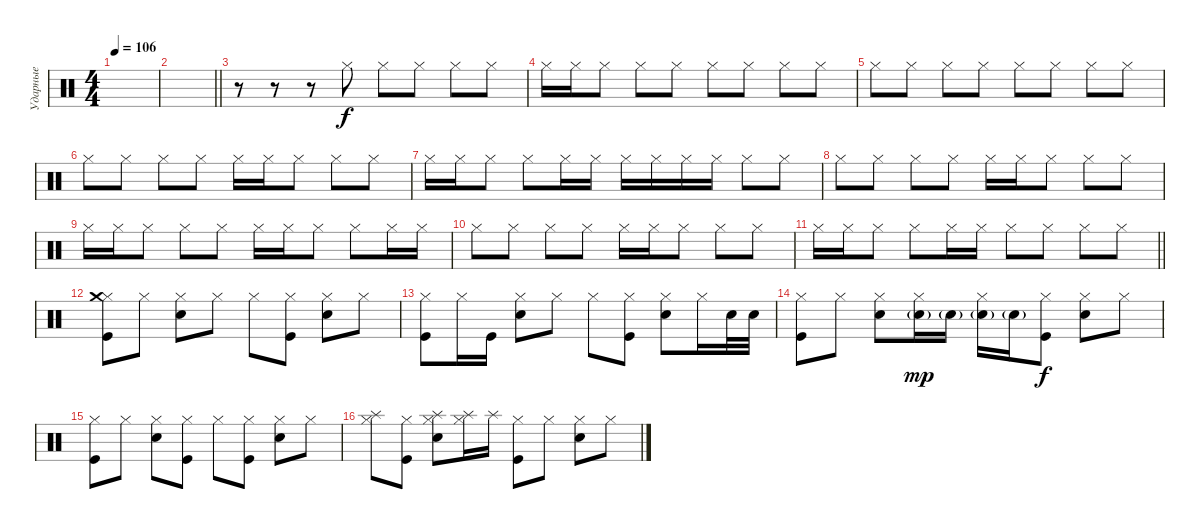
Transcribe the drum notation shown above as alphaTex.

\track ("Ударные" "Ударные") {instrument percussion}
\staff {score}
\articulation defaults
\ts (4 4)
\tempo 106
\clef neutral
\ks c
|
\barLineRight lightlight
|
r.8 r.8 r.8 "Hi-Hat (closed)".8 "Hi-Hat (closed)".8 "Hi-Hat (closed)".8 "Hi-Hat (closed)".8 "Hi-Hat (closed)".8 |
"Hi-Hat (closed)".16 "Hi-Hat (closed)".16 "Hi-Hat (closed)".8 "Hi-Hat (closed)".8 "Hi-Hat (closed)".8 "Hi-Hat (closed)".8 "Hi-Hat (closed)".8 "Hi-Hat (closed)".8 "Hi-Hat (closed)".8 |
"Hi-Hat (closed)".8 "Hi-Hat (closed)".8 "Hi-Hat (closed)".8 "Hi-Hat (closed)".8 "Hi-Hat (closed)".8 "Hi-Hat (closed)".8 "Hi-Hat (closed)".8 "Hi-Hat (closed)".8 |
"Hi-Hat (closed)".8 "Hi-Hat (closed)".8 "Hi-Hat (closed)".8 "Hi-Hat (closed)".8 "Hi-Hat (closed)".16 "Hi-Hat (closed)".16 "Hi-Hat (closed)".8 "Hi-Hat (closed)".8 "Hi-Hat (closed)".8 |
"Hi-Hat (closed)".16 "Hi-Hat (closed)".16 "Hi-Hat (closed)".8 "Hi-Hat (closed)".8 "Hi-Hat (closed)".16 "Hi-Hat (closed)".16 "Hi-Hat (closed)".16 "Hi-Hat (closed)".16 "Hi-Hat (closed)".16 "Hi-Hat (closed)".16 "Hi-Hat (closed)".8 "Hi-Hat (closed)".8 |
"Hi-Hat (closed)".8 "Hi-Hat (closed)".8 "Hi-Hat (closed)".8 "Hi-Hat (closed)".8 "Hi-Hat (closed)".16 "Hi-Hat (closed)".16 "Hi-Hat (closed)".8 "Hi-Hat (closed)".8 "Hi-Hat (closed)".8 |
"Hi-Hat (closed)".16 "Hi-Hat (closed)".16 "Hi-Hat (closed)".8 "Hi-Hat (closed)".8 "Hi-Hat (closed)".8 "Hi-Hat (closed)".16 "Hi-Hat (closed)".16 "Hi-Hat (closed)".8 "Hi-Hat (closed)".8 "Hi-Hat (closed)".16 "Hi-Hat (closed)".16 |
"Hi-Hat (closed)".8 "Hi-Hat (closed)".8 "Hi-Hat (closed)".8 "Hi-Hat (closed)".8 "Hi-Hat (closed)".16 "Hi-Hat (closed)".16 "Hi-Hat (closed)".8 "Hi-Hat (closed)".8 "Hi-Hat (closed)".8 |
\barLineRight lightlight "Hi-Hat (closed)".16 "Hi-Hat (closed)".16 "Hi-Hat (closed)".8 "Hi-Hat (closed)".8 "Hi-Hat (closed)".16 "Hi-Hat (closed)".16 "Hi-Hat (closed)".8 "Hi-Hat (closed)".8 "Hi-Hat (closed)".8 "Hi-Hat (closed)".8
|
("Hi-Hat (closed)" "Crash medium (hit)" "Kick (hit)").8 "Hi-Hat (closed)".8 ("Hi-Hat (closed)" "Snare (hit) 2").8 "Hi-Hat (closed)".8 "Hi-Hat (closed)".8 ("Hi-Hat (closed)" "Kick (hit)").8 ("Hi-Hat (closed)" "Snare (hit) 2").8 "Hi-Hat (closed)".8 |
("Hi-Hat (closed)" "Kick (hit)").8 "Hi-Hat (closed)".16 "Kick (hit)".16 ("Hi-Hat (closed)" "Snare (hit) 2").8 "Hi-Hat (closed)".8 "Hi-Hat (closed)".8 ("Hi-Hat (closed)" "Kick (hit)").8 ("Hi-Hat (closed)" "Snare (hit) 2").8 "Hi-Hat (closed)".16 "Snare (hit) 2".32 "Snare (hit) 2".32 |
("Hi-Hat (closed)" "Kick (hit)").8 "Hi-Hat (closed)".8 ("Hi-Hat (closed)" "Snare (hit) 2").8 ("Hi-Hat (closed)" "Snare (hit) 2"{g}).16{dy mp} "Snare (hit) 2"{g}.16 ("Hi-Hat (closed)" "Snare (hit) 2"{g}).16 "Snare (hit) 2"{g}.16 ("Hi-Hat (closed)" "Kick (hit)").8{dy f} ("Hi-Hat (closed)" "Snare (hit) 2").8 "Hi-Hat (closed)".8 |
("Hi-Hat (closed)" "Kick (hit)").8 "Hi-Hat (closed)".8 ("Hi-Hat (closed)" "Snare (hit) 2").8 ("Hi-Hat (closed)" "Kick (hit)").8 "Hi-Hat (closed)".8 ("Hi-Hat (closed)" "Kick (hit)").8 ("Hi-Hat (closed)" "Snare (hit) 2").8 "Hi-Hat (closed)".8 |
("Hi-Hat (closed)" "Splash (hit)").8 ("Hi-Hat (closed)" "Kick (hit)").8 ("Hi-Hat (closed)" "Splash (hit)" "Snare (hit) 2").8 ("Hi-Hat (closed)" "Splash (hit)").16 "Splash (hit)".16 ("Hi-Hat (closed)" "Kick (hit)").8 "Hi-Hat (closed)".8 ("Hi-Hat (closed)" "Snare (hit) 2").8 "Hi-Hat (closed)".8
